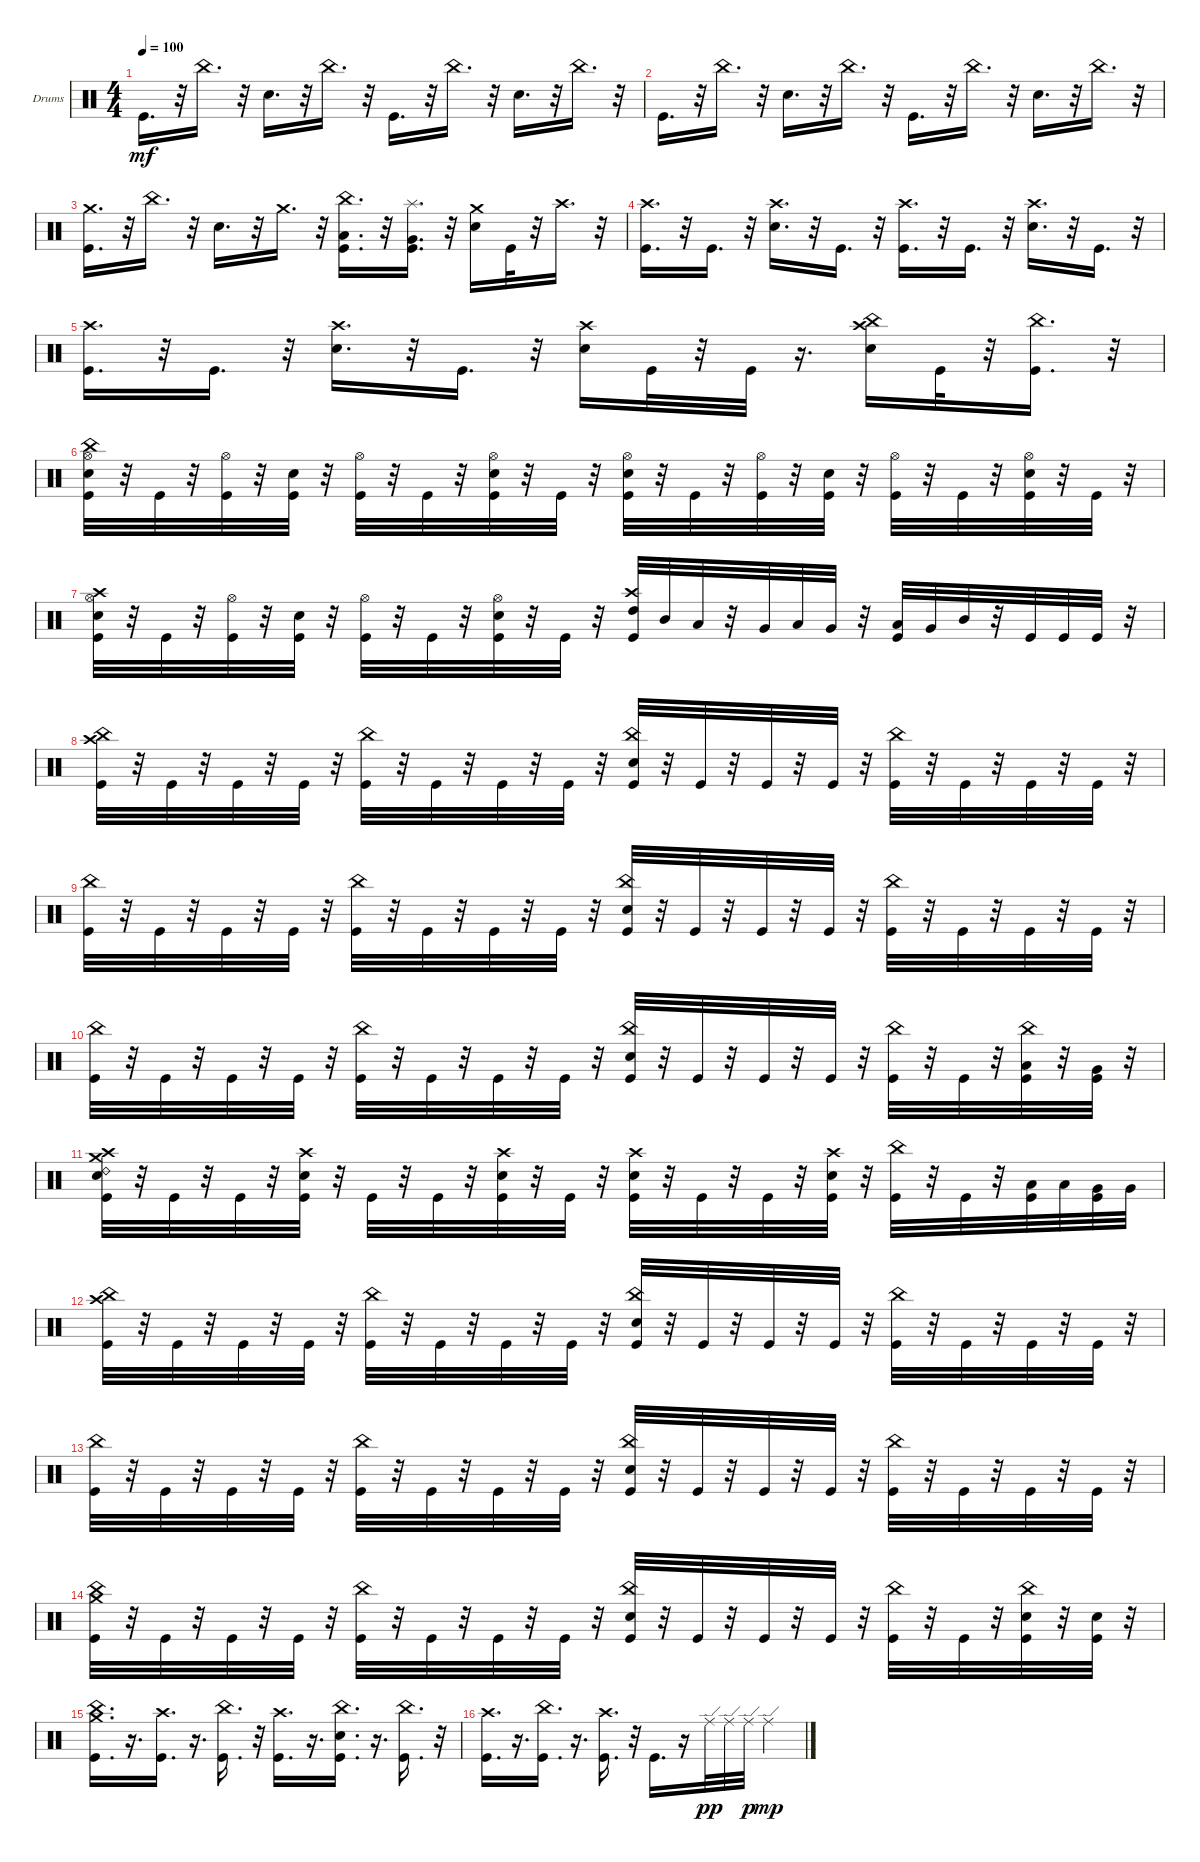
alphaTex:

\bracketExtendMode groupsimilarinstruments
\firstSystemTrackNameOrientation horizontal
\otherSystemsTrackNameOrientation horizontal
\track ("Drums" "Drums") {instrument percussion}
\staff {score}
\articulation defaults
\ts (4 4)
\tempo 100
\clef neutral
\ks c "Kick (hit)".16{d dy mf}
r.32 "China (hit)".16{d} r.32 "Snare (hit) 2".16{d} r.32 "China (hit)".16{d} r.32 "Kick (hit)".16{d} r.32 "China (hit)".16{d} r.32 "Snare (hit) 2".16{d} r.32 "China (hit)".16{d} r.32 |
"Kick (hit)".16{d} r.32 "China (hit)".16{d} r.32 "Snare (hit) 2".16{d} r.32 "China (hit)".16{d} r.32 "Kick (hit)".16{d} r.32 "China (hit)".16{d} r.32 "Snare (hit) 2".16{d} r.32 "China (hit)".16{d} r.32 |
("Kick (hit)" "Crash medium (hit)").16{d} r.32 "China (hit)".16{d} r.32 "Snare (hit) 2".16{d} r.32 "Crash medium (hit)".16{d} r.32 ("Low Tom (hit)" "China (hit)" "Kick (hit)").16{d} r.32 ("Very Low Tom (hit)" "Kick (hit)" "Splash (hit)").16{d} r.32 ("Crash medium (hit)" "Snare (hit) 2").16 "Kick (hit)".32 r.32 "Crash high (hit)".16{d} r.32 |
("Crash high (hit)" "Kick (hit)").16{d} r.32 "Kick (hit)".16{d} r.32 ("Crash high (hit)" "Snare (hit) 2").16{d} r.32 "Kick (hit)".16{d} r.32 ("Crash high (hit)" "Kick (hit)").16{d} r.32 "Kick (hit)".16{d} r.32 ("Crash high (hit)" "Snare (hit) 2").16{d} r.32 "Kick (hit)".16{d} r.32 |
("Crash high (hit)" "Kick (hit)").16{d} r.32 "Kick (hit)".16{d} r.32 ("Crash high (hit)" "Snare (hit) 2").16{d} r.32 "Kick (hit)".16{d} r.32 ("Crash high (hit)" "Snare (hit) 2").16 "Kick (hit)".32 r.32 "Kick (hit)".32 r.16{d} ("Crash high (hit)" "China (hit)" "Snare (hit) 2").16 "Kick (hit)".32 r.32 ("China (hit)" "Kick (hit)").16{d} r.32 |
("Hi-Hat (open)" "China (hit)" "Snare (hit) 2" "Kick (hit)").32 r.32 "Kick (hit)".32 r.32 ("Hi-Hat (open)" "Kick (hit)").32 r.32 ("Snare (hit) 2" "Kick (hit)").32 r.32 ("Hi-Hat (open)" "Kick (hit)").32 r.32 "Kick (hit)".32 r.32 ("Hi-Hat (open)" "Snare (hit) 2" "Kick (hit)").32 r.32 "Kick (hit)".32 r.32 ("Hi-Hat (open)" "Snare (hit) 2" "Kick (hit)").32 r.32 "Kick (hit)".32 r.32 ("Hi-Hat (open)" "Kick (hit)").32 r.32 ("Snare (hit) 2" "Kick (hit)").32 r.32 ("Hi-Hat (open)" "Kick (hit)").32 r.32 "Kick (hit)".32 r.32 ("Hi-Hat (open)" "Snare (hit) 2" "Kick (hit)").32 r.32 "Kick (hit)".32 r.32 |
("Hi-Hat (open)" "Crash high (hit)" "Snare (hit) 2" "Kick (hit)").32 r.32 "Kick (hit)".32 r.32 ("Hi-Hat (open)" "Kick (hit)").32 r.32 ("Snare (hit) 2" "Kick (hit)").32 r.32 ("Hi-Hat (open)" "Kick (hit)").32 r.32 "Kick (hit)".32 r.32 ("Hi-Hat (open)" "Snare (hit) 2" "Kick (hit)").32 r.32 "Kick (hit)".32 r.32 ("High Tom (hit)" "Kick (hit)" "Crash high (hit)").32 "Mid Tom (hit)".32 "Low Tom (hit)".32 r.32 "Very Low Tom (hit)".32 "Low Tom (hit)".32 "Very Low Tom (hit)".32 r.32 ("Low Tom (hit)" "Kick (hit)").32 "Very Low Tom (hit)".32 "Mid Tom (hit)".32 r.32 "Kick (hit)".32 "Kick (hit)".32 "Kick (hit)".32 r.32 |
("Crash high (hit)" "China (hit)" "Kick (hit)").32 r.32 "Kick (hit)".32 r.32 "Kick (hit)".32 r.32 "Kick (hit)".32 r.32 ("China (hit)" "Kick (hit)").32 r.32 "Kick (hit)".32 r.32 "Kick (hit)".32 r.32 "Kick (hit)".32 r.32 ("China (hit)" "Snare (hit) 2" "Kick (hit)").32 r.32 "Kick (hit)".32 r.32 "Kick (hit)".32 r.32 "Kick (hit)".32 r.32 ("China (hit)" "Kick (hit)").32 r.32 "Kick (hit)".32 r.32 "Kick (hit)".32 r.32 "Kick (hit)".32 r.32 |
("China (hit)" "Kick (hit)").32 r.32 "Kick (hit)".32 r.32 "Kick (hit)".32 r.32 "Kick (hit)".32 r.32 ("China (hit)" "Kick (hit)").32 r.32 "Kick (hit)".32 r.32 "Kick (hit)".32 r.32 "Kick (hit)".32 r.32 ("China (hit)" "Snare (hit) 2" "Kick (hit)").32 r.32 "Kick (hit)".32 r.32 "Kick (hit)".32 r.32 "Kick (hit)".32 r.32 ("China (hit)" "Kick (hit)").32 r.32 "Kick (hit)".32 r.32 "Kick (hit)".32 r.32 "Kick (hit)".32 r.32 |
("Kick (hit)" "China (hit)").32 r.32 "Kick (hit)".32 r.32 "Kick (hit)".32 r.32 "Kick (hit)".32 r.32 ("Kick (hit)" "China (hit)").32 r.32 "Kick (hit)".32 r.32 "Kick (hit)".32 r.32 "Kick (hit)".32 r.32 ("Kick (hit)" "Snare (hit) 2" "China (hit)").32 r.32 "Kick (hit)".32 r.32 "Kick (hit)".32 r.32 "Kick (hit)".32 r.32 ("Kick (hit)" "China (hit)").32 r.32 "Kick (hit)".32 r.32 ("Kick (hit)" "China (hit)" "Low Tom (hit)").32 r.32 ("Kick (hit)" "Very Low Tom (hit)").32 r.32 |
("Crash medium (hit)" "Crash high (hit)" "Kick (hit)" "Snare (hit) 2" "Ride (bell) 2").32 r.32 "Kick (hit)".32 r.32 "Kick (hit)".32 r.32 ("Snare (hit) 2" "Kick (hit)" "Crash high (hit)").32 r.32 "Kick (hit)".32 r.32 "Kick (hit)".32 r.32 ("Snare (hit) 2" "Kick (hit)" "Crash high (hit)").32 r.32 "Kick (hit)".32 r.32 ("Snare (hit) 2" "Kick (hit)" "Crash high (hit)").32 r.32 "Kick (hit)".32 r.32 "Kick (hit)".32 r.32 ("Snare (hit) 2" "Kick (hit)" "Crash high (hit)").32 r.32 ("China (hit)" "Kick (hit)").32 r.32 "Kick (hit)".32 r.32 ("Low Tom (hit)" "Kick (hit)").32 "Low Tom (hit)".32 ("Very Low Tom (hit)" "Kick (hit)").32 "Very Low Tom (hit)".32 |
("Crash high (hit)" "China (hit)" "Kick (hit)").32 r.32 "Kick (hit)".32 r.32 "Kick (hit)".32 r.32 "Kick (hit)".32 r.32 ("China (hit)" "Kick (hit)").32 r.32 "Kick (hit)".32 r.32 "Kick (hit)".32 r.32 "Kick (hit)".32 r.32 ("China (hit)" "Snare (hit) 2" "Kick (hit)").32 r.32 "Kick (hit)".32 r.32 "Kick (hit)".32 r.32 "Kick (hit)".32 r.32 ("China (hit)" "Kick (hit)").32 r.32 "Kick (hit)".32 r.32 "Kick (hit)".32 r.32 "Kick (hit)".32 r.32 |
("China (hit)" "Kick (hit)").32 r.32 "Kick (hit)".32 r.32 "Kick (hit)".32 r.32 "Kick (hit)".32 r.32 ("China (hit)" "Kick (hit)").32 r.32 "Kick (hit)".32 r.32 "Kick (hit)".32 r.32 "Kick (hit)".32 r.32 ("China (hit)" "Snare (hit) 2" "Kick (hit)").32 r.32 "Kick (hit)".32 r.32 "Kick (hit)".32 r.32 "Kick (hit)".32 r.32 ("China (hit)" "Kick (hit)").32 r.32 "Kick (hit)".32 r.32 "Kick (hit)".32 r.32 "Kick (hit)".32 r.32 |
("China (hit)" "Kick (hit)" "Crash medium (hit)").32 r.32 "Kick (hit)".32 r.32 "Kick (hit)".32 r.32 "Kick (hit)".32 r.32 ("China (hit)" "Kick (hit)").32 r.32 "Kick (hit)".32 r.32 "Kick (hit)".32 r.32 "Kick (hit)".32 r.32 ("China (hit)" "Snare (hit) 2" "Kick (hit)").32 r.32 "Kick (hit)".32 r.32 "Kick (hit)".32 r.32 "Kick (hit)".32 r.32 ("China (hit)" "Kick (hit)").32 r.32 "Kick (hit)".32 r.32 ("China (hit)" "Snare (hit) 2" "Kick (hit)").32 r.32 ("Snare (hit) 2" "Kick (hit)").32 r.32 |
("China (hit)" "Kick (hit)" "Crash medium (hit)").16{d} r.16{d} ("Crash high (hit)" "Kick (hit)").16{d} r.16{d} ("China (hit)" "Kick (hit)").16{d} r.32 ("Crash high (hit)" "Kick (hit)").16{d} r.16{d} ("China (hit)" "Snare (hit) 2" "Kick (hit)").16{d} r.16{d} ("China (hit)" "Kick (hit)").16{d} r.32 |
("Crash high (hit)" "Kick (hit)").16{d} r.16{d} ("China (hit)" "Kick (hit)").16{d} r.16{d} ("Crash high (hit)" "Kick (hit)").16{d} r.32 "Kick (hit)".16{d} r.16 "Ride (edge)".32{dy pp} "Ride (edge)".32 "Ride (edge)".32{dy p} "Ride (edge)".4{dy mp}
